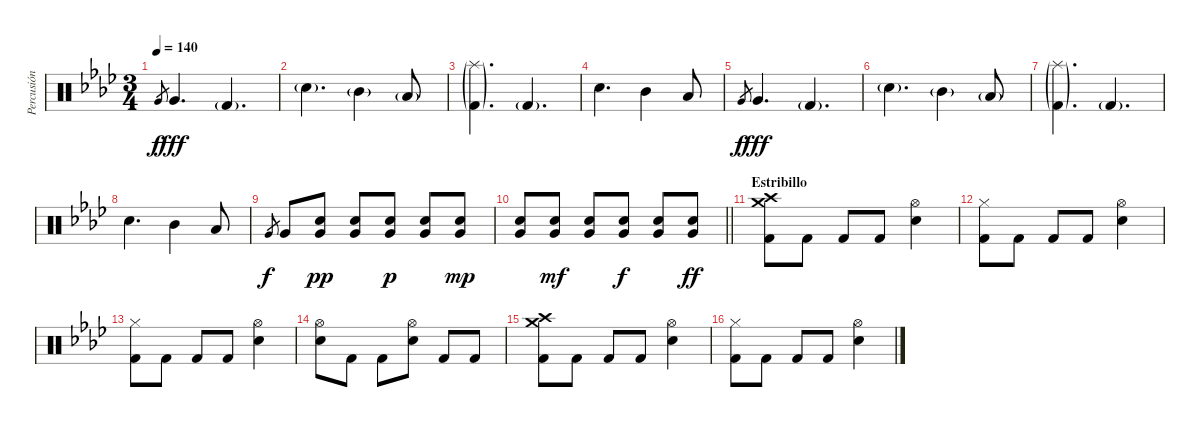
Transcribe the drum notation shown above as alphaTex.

\track ("Percusión" "Percusión") {instrument percussion}
\staff {score}
\articulation defaults
\ts (3 4)
\tempo 140
\clef neutral
\ks fminor "Very Low Tom (hit)".8{gr dy f} "Very Low Tom (hit)".4{d dy fff} "Kick (hit) 2"{g}.4{d}
|
"Electric Snare (hit)"{g}.4{d} "Mid Tom (hit)"{g}.4 "Low Tom (hit)"{g}.8 |
("Splash (hit)"{g} "Kick (hit) 2"{g}).4{d} "Kick (hit) 2"{g}.4{d} |
"Electric Snare (hit)".4{d} "Mid Tom (hit)".4 "Low Tom (hit)".8 |
"Very Low Tom (hit)".8{gr dy f} "Very Low Tom (hit)".4{d dy fff} "Kick (hit) 2"{g}.4{d} |
"Electric Snare (hit)"{g}.4{d} "Mid Tom (hit)"{g}.4 "Low Tom (hit)"{g}.8 |
("Splash (hit)"{g} "Kick (hit) 2"{g}).4{d} "Kick (hit) 2"{g}.4{d} |
"Electric Snare (hit)".4{d} "Mid Tom (hit)".4 "Low Tom (hit)".8 |
"Very Low Tom (hit)".8{gr dy f} "Very Low Tom (hit)".8 ("Snare (hit) 2" "Very Low Tom (hit)").8{dy pp} ("Snare (hit) 2" "Very Low Tom (hit)").8 ("Snare (hit) 2" "Very Low Tom (hit)").8{dy p} ("Snare (hit) 2" "Very Low Tom (hit)").8 ("Snare (hit) 2" "Very Low Tom (hit)").8{dy mp} |
\barLineRight lightlight
("Snare (hit) 2" "Very Low Tom (hit)").8 ("Snare (hit) 2" "Very Low Tom (hit)").8{dy mf} ("Snare (hit) 2" "Very Low Tom (hit)").8 ("Snare (hit) 2" "Very Low Tom (hit)").8{dy f} ("Snare (hit) 2" "Very Low Tom (hit)").8 ("Snare (hit) 2" "Very Low Tom (hit)").8{dy ff} |
\section ("" "Estribillo")
("Crash high (hit)" "Crash medium (hit)" "Kick (hit) 2").8 "Kick (hit) 2".8 "Kick (hit) 2".8 "Kick (hit) 2".8 ("Hi-Hat (open)" "Snare (hit) 2").4 |
("Hi-Hat (closed)" "Kick (hit) 2").8 "Kick (hit) 2".8 "Kick (hit) 2".8 "Kick (hit) 2".8 ("Hi-Hat (open)" "Snare (hit) 2").4 |
("Hi-Hat (closed)" "Kick (hit) 2").8 "Kick (hit) 2".8 "Kick (hit) 2".8 "Kick (hit) 2".8 ("Hi-Hat (open)" "Snare (hit) 2").4 |
("Hi-Hat (open)" "Snare (hit) 2").8 "Kick (hit) 2".8 "Kick (hit) 2".8 ("Hi-Hat (open)" "Snare (hit) 2").8 "Kick (hit) 2".8 "Kick (hit) 2".8 |
("Crash high (hit)" "Crash medium (hit)" "Kick (hit) 2").8 "Kick (hit) 2".8 "Kick (hit) 2".8 "Kick (hit) 2".8 ("Hi-Hat (open)" "Snare (hit) 2").4 |
("Hi-Hat (closed)" "Kick (hit) 2").8 "Kick (hit) 2".8 "Kick (hit) 2".8 "Kick (hit) 2".8 ("Hi-Hat (open)" "Snare (hit) 2").4
